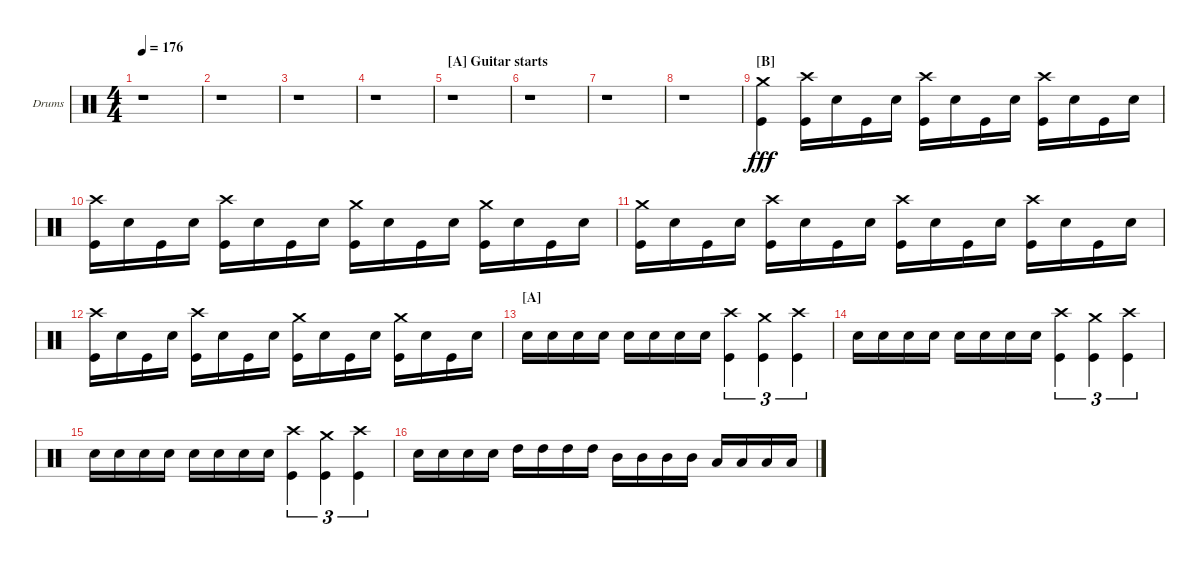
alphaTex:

\defaultSystemsLayout 4
\bracketExtendMode groupsimilarinstruments
\firstSystemTrackNameOrientation horizontal
\otherSystemsTrackNameOrientation horizontal
\track ("Drums" "Drums") {instrument percussion}
\staff {score}
\articulation defaults
\ts (4 4)
\tempo 176
\clef neutral
\ks c
r.1{dy fff} |
r.1 |
r.1 |
r.1 |
\section ("A" "Guitar starts")
r.1 |
r.1 |
r.1 |
r.1 |
\section ("B" "")
("Kick (hit)" "Crash medium (hit)").4 ("Kick (hit)" "Crash high (hit)").16 "Snare (hit) 2".16 "Kick (hit)".16 "Snare (hit) 2".16 ("Kick (hit)" "Crash high (hit)").16 "Snare (hit) 2".16 "Kick (hit)".16 "Snare (hit) 2".16 ("Kick (hit)" "Crash high (hit)").16 "Snare (hit) 2".16 "Kick (hit)".16 "Snare (hit) 2".16 |
("Kick (hit)" "Crash high (hit)").16 "Snare (hit) 2".16 "Kick (hit)".16 "Snare (hit) 2".16 ("Kick (hit)" "Crash high (hit)").16 "Snare (hit) 2".16 "Kick (hit)".16 "Snare (hit) 2".16 ("Kick (hit)" "Crash medium (hit)").16 "Snare (hit) 2".16 "Kick (hit)".16 "Snare (hit) 2".16 ("Kick (hit)" "Crash medium (hit)").16 "Snare (hit) 2".16 "Kick (hit)".16 "Snare (hit) 2".16 |
("Kick (hit)" "Crash medium (hit)").16 "Snare (hit) 2".16 "Kick (hit)".16 "Snare (hit) 2".16 ("Kick (hit)" "Crash high (hit)").16 "Snare (hit) 2".16 "Kick (hit)".16 "Snare (hit) 2".16 ("Kick (hit)" "Crash high (hit)").16 "Snare (hit) 2".16 "Kick (hit)".16 "Snare (hit) 2".16 ("Kick (hit)" "Crash high (hit)").16 "Snare (hit) 2".16 "Kick (hit)".16 "Snare (hit) 2".16 |
("Kick (hit)" "Crash high (hit)").16 "Snare (hit) 2".16 "Kick (hit)".16 "Snare (hit) 2".16 ("Kick (hit)" "Crash high (hit)").16 "Snare (hit) 2".16 "Kick (hit)".16 "Snare (hit) 2".16 ("Kick (hit)" "Crash medium (hit)").16 "Snare (hit) 2".16 "Kick (hit)".16 "Snare (hit) 2".16 ("Kick (hit)" "Crash medium (hit)").16 "Snare (hit) 2".16 "Kick (hit)".16 "Snare (hit) 2".16 |
\section ("A" "")
"Snare (hit) 2".16 "Snare (hit) 2".16 "Snare (hit) 2".16 "Snare (hit) 2".16 "Snare (hit) 2".16 "Snare (hit) 2".16 "Snare (hit) 2".16 "Snare (hit) 2".16 ("Kick (hit)" "Crash high (hit)").4{tu (3 2)} ("Kick (hit)" "Crash medium (hit)").4{tu (3 2)} ("Kick (hit)" "Crash high (hit)").4{tu (3 2)} |
"Snare (hit) 2".16 "Snare (hit) 2".16 "Snare (hit) 2".16 "Snare (hit) 2".16 "Snare (hit) 2".16 "Snare (hit) 2".16 "Snare (hit) 2".16 "Snare (hit) 2".16 ("Kick (hit)" "Crash high (hit)").4{tu (3 2)} ("Kick (hit)" "Crash medium (hit)").4{tu (3 2)} ("Kick (hit)" "Crash high (hit)").4{tu (3 2)} |
"Snare (hit) 2".16 "Snare (hit) 2".16 "Snare (hit) 2".16 "Snare (hit) 2".16 "Snare (hit) 2".16 "Snare (hit) 2".16 "Snare (hit) 2".16 "Snare (hit) 2".16 ("Kick (hit)" "Crash high (hit)").4{tu (3 2)} ("Kick (hit)" "Crash medium (hit)").4{tu (3 2)} ("Kick (hit)" "Crash high (hit)").4{tu (3 2)} |
"Snare (hit) 2".16 "Snare (hit) 2".16 "Snare (hit) 2".16 "Snare (hit) 2".16 "High Tom (hit)".16 "High Tom (hit)".16 "High Tom (hit)".16 "High Tom (hit)".16 "Mid Tom (hit)".16 "Mid Tom (hit)".16 "Mid Tom (hit)".16 "Mid Tom (hit)".16 "Low Tom (hit)".16 "Low Tom (hit)".16 "Low Tom (hit)".16 "Low Tom (hit)".16
